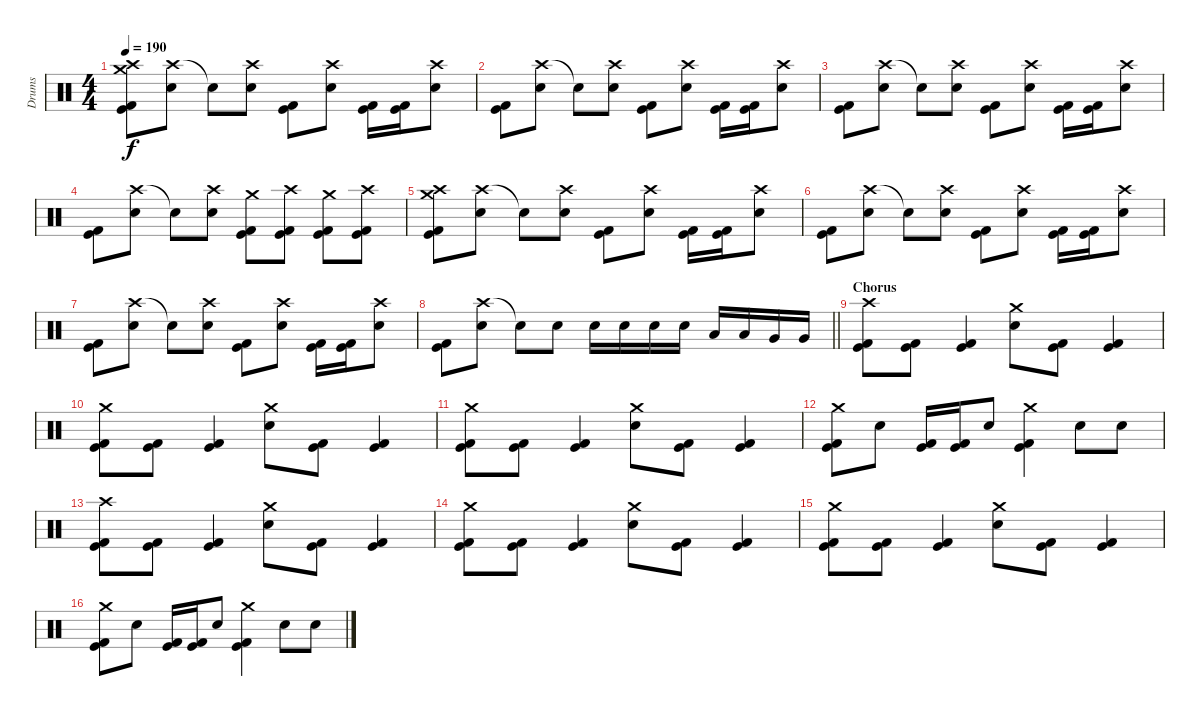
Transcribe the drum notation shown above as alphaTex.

\track ("Drums" "Drums") {instrument percussion}
\staff {score}
\articulation defaults
\ts (4 4)
\tempo 190
\clef neutral
\ks c
("Crash medium (hit)" "Crash high (hit)" "Kick (hit)" "Kick (hit) 2").8{dy f} ("Crash high (hit)" "Electric Snare (hit)").8 "Snare (hit)"{t}.8 ("Crash high (hit)" "Electric Snare (hit)").8 ("Kick (hit)" "Kick (hit) 2").8 ("Crash high (hit)" "Electric Snare (hit)").8 ("Kick (hit)" "Kick (hit) 2").16 ("Kick (hit)" "Kick (hit) 2").16 ("Crash high (hit)" "Electric Snare (hit)").8 |
("Kick (hit)" "Kick (hit) 2").8 ("Crash high (hit)" "Electric Snare (hit)").8 "Snare (hit)"{t}.8 ("Crash high (hit)" "Electric Snare (hit)").8 ("Kick (hit)" "Kick (hit) 2").8 ("Crash high (hit)" "Electric Snare (hit)").8 ("Kick (hit)" "Kick (hit) 2").16 ("Kick (hit)" "Kick (hit) 2").16 ("Crash high (hit)" "Electric Snare (hit)").8 |
("Kick (hit)" "Kick (hit) 2").8 ("Crash high (hit)" "Electric Snare (hit)").8 "Snare (hit)"{t}.8 ("Crash high (hit)" "Electric Snare (hit)").8 ("Kick (hit)" "Kick (hit) 2").8 ("Crash high (hit)" "Electric Snare (hit)").8 ("Kick (hit)" "Kick (hit) 2").16 ("Kick (hit)" "Kick (hit) 2").16 ("Crash high (hit)" "Electric Snare (hit)").8 |
("Kick (hit)" "Kick (hit) 2").8 ("Crash high (hit)" "Electric Snare (hit)").8 "Snare (hit)"{t}.8 ("Crash high (hit)" "Electric Snare (hit)").8 ("Crash medium (hit)" "Kick (hit)" "Kick (hit) 2").8 ("Crash high (hit)" "Kick (hit)" "Kick (hit) 2").8 ("Crash medium (hit)" "Kick (hit)" "Kick (hit) 2").8 ("Crash high (hit)" "Kick (hit)" "Kick (hit) 2").8 |
("Crash medium (hit)" "Crash high (hit)" "Kick (hit)" "Kick (hit) 2").8 ("Crash high (hit)" "Electric Snare (hit)").8 "Snare (hit)"{t}.8 ("Crash high (hit)" "Electric Snare (hit)").8 ("Kick (hit)" "Kick (hit) 2").8 ("Crash high (hit)" "Electric Snare (hit)").8 ("Kick (hit)" "Kick (hit) 2").16 ("Kick (hit)" "Kick (hit) 2").16 ("Crash high (hit)" "Electric Snare (hit)").8 |
("Kick (hit)" "Kick (hit) 2").8 ("Crash high (hit)" "Electric Snare (hit)").8 "Snare (hit)"{t}.8 ("Crash high (hit)" "Electric Snare (hit)").8 ("Kick (hit)" "Kick (hit) 2").8 ("Crash high (hit)" "Electric Snare (hit)").8 ("Kick (hit)" "Kick (hit) 2").16 ("Kick (hit)" "Kick (hit) 2").16 ("Crash high (hit)" "Electric Snare (hit)").8 |
("Kick (hit)" "Kick (hit) 2").8 ("Crash high (hit)" "Electric Snare (hit)").8 "Snare (hit)"{t}.8 ("Crash high (hit)" "Electric Snare (hit)").8 ("Kick (hit)" "Kick (hit) 2").8 ("Crash high (hit)" "Electric Snare (hit)").8 ("Kick (hit)" "Kick (hit) 2").16 ("Kick (hit)" "Kick (hit) 2").16 ("Crash high (hit)" "Electric Snare (hit)").8 |
\barLineRight lightlight
("Kick (hit)" "Kick (hit) 2").8 ("Crash high (hit)" "Electric Snare (hit)").8 "Snare (hit)"{t}.8 "Electric Snare (hit)".8 "Electric Snare (hit)".16 "Electric Snare (hit)".16 "Electric Snare (hit)".16 "Electric Snare (hit)".16 "Low Tom (hit)".16 "Low Tom (hit)".16 "Very Low Tom (hit)".16 "Very Low Tom (hit)".16 |
\section ("" "Chorus")
("Crash high (hit)" "Kick (hit)" "Kick (hit) 2").8 ("Kick (hit)" "Kick (hit) 2").8 ("Kick (hit)" "Kick (hit) 2").4 ("Crash medium (hit)" "Electric Snare (hit)").8 ("Kick (hit)" "Kick (hit) 2").8 ("Kick (hit)" "Kick (hit) 2").4 |
("Crash medium (hit)" "Kick (hit)" "Kick (hit) 2").8 ("Kick (hit)" "Kick (hit) 2").8 ("Kick (hit)" "Kick (hit) 2").4 ("Crash medium (hit)" "Electric Snare (hit)").8 ("Kick (hit)" "Kick (hit) 2").8 ("Kick (hit)" "Kick (hit) 2").4 |
("Crash medium (hit)" "Kick (hit)" "Kick (hit) 2").8 ("Kick (hit)" "Kick (hit) 2").8 ("Kick (hit)" "Kick (hit) 2").4 ("Crash medium (hit)" "Electric Snare (hit)").8 ("Kick (hit)" "Kick (hit) 2").8 ("Kick (hit)" "Kick (hit) 2").4 |
("Crash medium (hit)" "Kick (hit)" "Kick (hit) 2").8 "Electric Snare (hit)".8 ("Kick (hit)" "Kick (hit) 2").16 ("Kick (hit)" "Kick (hit) 2").16 "Electric Snare (hit)".8 ("Crash medium (hit)" "Kick (hit)" "Kick (hit) 2").4 "Electric Snare (hit)".8 "Electric Snare (hit)".8 |
("Crash high (hit)" "Kick (hit)" "Kick (hit) 2").8 ("Kick (hit)" "Kick (hit) 2").8 ("Kick (hit)" "Kick (hit) 2").4 ("Crash medium (hit)" "Electric Snare (hit)").8 ("Kick (hit)" "Kick (hit) 2").8 ("Kick (hit)" "Kick (hit) 2").4 |
("Crash medium (hit)" "Kick (hit)" "Kick (hit) 2").8 ("Kick (hit)" "Kick (hit) 2").8 ("Kick (hit)" "Kick (hit) 2").4 ("Crash medium (hit)" "Electric Snare (hit)").8 ("Kick (hit)" "Kick (hit) 2").8 ("Kick (hit)" "Kick (hit) 2").4 |
("Crash medium (hit)" "Kick (hit)" "Kick (hit) 2").8 ("Kick (hit)" "Kick (hit) 2").8 ("Kick (hit)" "Kick (hit) 2").4 ("Crash medium (hit)" "Electric Snare (hit)").8 ("Kick (hit)" "Kick (hit) 2").8 ("Kick (hit)" "Kick (hit) 2").4 |
("Crash medium (hit)" "Kick (hit)" "Kick (hit) 2").8 "Electric Snare (hit)".8 ("Kick (hit)" "Kick (hit) 2").16 ("Kick (hit)" "Kick (hit) 2").16 "Electric Snare (hit)".8 ("Crash medium (hit)" "Kick (hit)" "Kick (hit) 2").4 "Electric Snare (hit)".8 "Electric Snare (hit)".8
